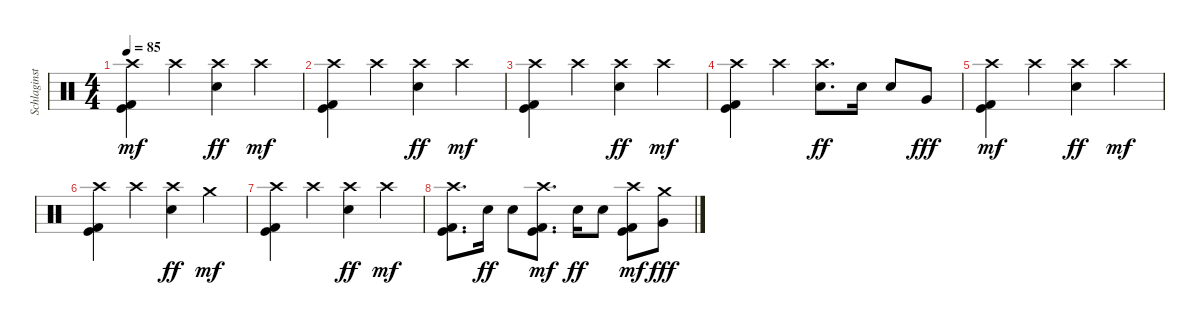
\track ("Schlaginstrumente - Auswahl" "Schlaginst") {instrument percussion}
\staff {score}
\articulation defaults
\ts (4 4)
\tempo 85
\clef neutral
\ks c
("Crash high (hit)" "Kick (hit) 2" "Kick (hit)").4{dy mf} "Crash high (hit)".4 ("Crash high (hit)" "Snare (hit) 2").4{dy ff} "Crash high (hit)".4{dy mf} |
("Crash high (hit)" "Kick (hit) 2" "Kick (hit)").4 "Crash high (hit)".4 ("Crash high (hit)" "Snare (hit) 2").4{dy ff} "Crash high (hit)".4{dy mf} |
("Crash high (hit)" "Kick (hit) 2" "Kick (hit)").4 "Crash high (hit)".4 ("Crash high (hit)" "Snare (hit) 2").4{dy ff} "Crash high (hit)".4{dy mf} |
("Crash high (hit)" "Kick (hit) 2" "Kick (hit)").4 "Crash high (hit)".4 ("Crash high (hit)" "Snare (hit) 2").8{d dy ff} "Snare (hit) 2".16 "Snare (hit) 2".8 "Very Low Tom (hit)".8{dy fff} |
("Crash high (hit)" "Kick (hit) 2" "Kick (hit)").4{dy mf} "Crash high (hit)".4 ("Crash high (hit)" "Snare (hit) 2").4{dy ff} "Crash high (hit)".4{dy mf} |
("Crash high (hit)" "Kick (hit) 2" "Kick (hit)").4 "Crash high (hit)".4 ("Crash high (hit)" "Snare (hit) 2").4{dy ff} "Crash medium (hit)".4{dy mf} |
("Crash high (hit)" "Kick (hit) 2" "Kick (hit)").4 "Crash high (hit)".4 ("Crash high (hit)" "Snare (hit) 2").4{dy ff} "Crash high (hit)".4{dy mf} |
("Crash high (hit)" "Kick (hit) 2" "Kick (hit)").8{d} "Snare (hit) 2".16{dy ff} "Snare (hit) 2".8 ("Crash high (hit)" "Kick (hit) 2" "Kick (hit)").8{d dy mf} "Snare (hit) 2".16{dy ff} "Snare (hit) 2".8 ("Crash high (hit)" "Kick (hit) 2" "Kick (hit)").8{dy mf} ("Crash medium (hit)" "Very Low Tom (hit)").8{dy fff}
